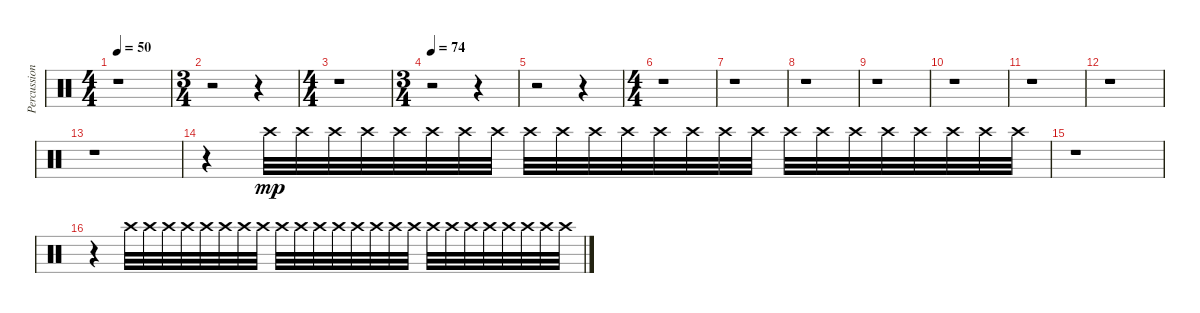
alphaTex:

\track ("Percussion" "Percussion") {instrument percussion}
\staff {score}
\articulation defaults
\ts (4 4)
\tempo 50
\clef neutral
\ks c
r.1{dy mp} |
\ts (3 4)
r.2 r.4 |
\ts (4 4)
r.1 |
\ts (3 4)
\tempo 74
r.2 r.4 |
r.2 r.4 |
\ts (4 4)
r.1 |
r.1 |
r.1 |
r.1 |
r.1 |
r.1 |
r.1 |
r.1 |
r.4 "Crash high (hit)".32 "Crash high (hit)".32 "Crash high (hit)".32 "Crash high (hit)".32 "Crash high (hit)".32 "Crash high (hit)".32 "Crash high (hit)".32 "Crash high (hit)".32 "Crash high (hit)".32 "Crash high (hit)".32 "Crash high (hit)".32 "Crash high (hit)".32 "Crash high (hit)".32 "Crash high (hit)".32 "Crash high (hit)".32 "Crash high (hit)".32 "Crash high (hit)".32 "Crash high (hit)".32 "Crash high (hit)".32 "Crash high (hit)".32 "Crash high (hit)".32 "Crash high (hit)".32 "Crash high (hit)".32 "Crash high (hit)".32 |
r.1 |
r.4 "Crash high (hit)".32 "Crash high (hit)".32 "Crash high (hit)".32 "Crash high (hit)".32 "Crash high (hit)".32 "Crash high (hit)".32 "Crash high (hit)".32 "Crash high (hit)".32 "Crash high (hit)".32 "Crash high (hit)".32 "Crash high (hit)".32 "Crash high (hit)".32 "Crash high (hit)".32 "Crash high (hit)".32 "Crash high (hit)".32 "Crash high (hit)".32 "Crash high (hit)".32 "Crash high (hit)".32 "Crash high (hit)".32 "Crash high (hit)".32 "Crash high (hit)".32 "Crash high (hit)".32 "Crash high (hit)".32 "Crash high (hit)".32
